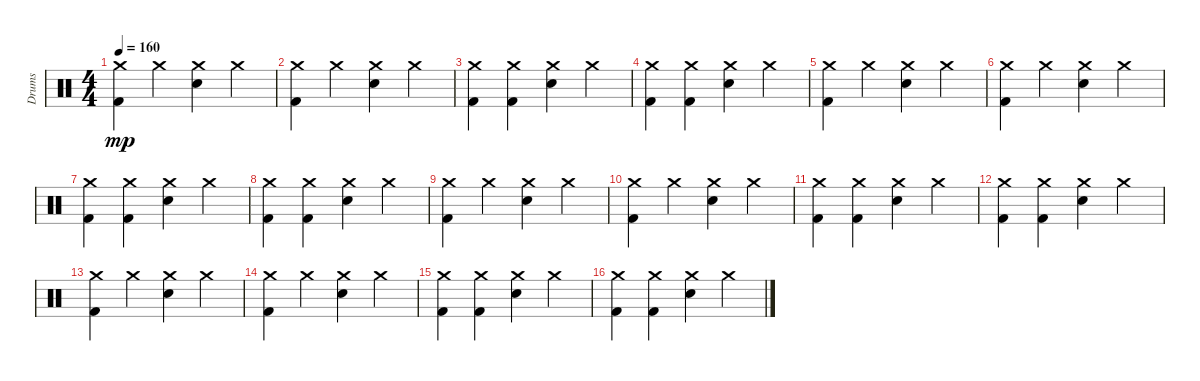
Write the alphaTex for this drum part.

\track ("Drums" "Drums") {instrument percussion}
\staff {score}
\articulation defaults
\ts (4 4)
\tempo 160
\clef neutral
\ks c
("Kick (hit) 2" "Crash medium (hit)").4{dy mp} "Crash medium (hit)".4 ("Snare (hit) 2" "Crash medium (hit)").4 "Crash medium (hit)".4 |
("Kick (hit) 2" "Crash medium (hit)").4 "Crash medium (hit)".4 ("Snare (hit) 2" "Crash medium (hit)").4 "Crash medium (hit)".4 |
("Kick (hit) 2" "Crash medium (hit)").4 ("Kick (hit) 2" "Crash medium (hit)").4 ("Snare (hit) 2" "Crash medium (hit)").4 "Crash medium (hit)".4 |
("Kick (hit) 2" "Crash medium (hit)").4 ("Kick (hit) 2" "Crash medium (hit)").4 ("Snare (hit) 2" "Crash medium (hit)").4 "Crash medium (hit)".4 |
("Kick (hit) 2" "Crash medium (hit)").4 "Crash medium (hit)".4 ("Snare (hit) 2" "Crash medium (hit)").4 "Crash medium (hit)".4 |
("Kick (hit) 2" "Crash medium (hit)").4 "Crash medium (hit)".4 ("Snare (hit) 2" "Crash medium (hit)").4 "Crash medium (hit)".4 |
("Kick (hit) 2" "Crash medium (hit)").4 ("Kick (hit) 2" "Crash medium (hit)").4 ("Snare (hit) 2" "Crash medium (hit)").4 "Crash medium (hit)".4 |
("Kick (hit) 2" "Crash medium (hit)").4 ("Kick (hit) 2" "Crash medium (hit)").4 ("Snare (hit) 2" "Crash medium (hit)").4 "Crash medium (hit)".4 |
("Kick (hit) 2" "Crash medium (hit)").4 "Crash medium (hit)".4 ("Snare (hit) 2" "Crash medium (hit)").4 "Crash medium (hit)".4 |
("Kick (hit) 2" "Crash medium (hit)").4 "Crash medium (hit)".4 ("Snare (hit) 2" "Crash medium (hit)").4 "Crash medium (hit)".4 |
("Kick (hit) 2" "Crash medium (hit)").4 ("Kick (hit) 2" "Crash medium (hit)").4 ("Snare (hit) 2" "Crash medium (hit)").4 "Crash medium (hit)".4 |
("Kick (hit) 2" "Crash medium (hit)").4 ("Kick (hit) 2" "Crash medium (hit)").4 ("Snare (hit) 2" "Crash medium (hit)").4 "Crash medium (hit)".4 |
("Kick (hit) 2" "Crash medium (hit)").4 "Crash medium (hit)".4 ("Snare (hit) 2" "Crash medium (hit)").4 "Crash medium (hit)".4 |
("Kick (hit) 2" "Crash medium (hit)").4 "Crash medium (hit)".4 ("Snare (hit) 2" "Crash medium (hit)").4 "Crash medium (hit)".4 |
("Kick (hit) 2" "Crash medium (hit)").4 ("Kick (hit) 2" "Crash medium (hit)").4 ("Snare (hit) 2" "Crash medium (hit)").4 "Crash medium (hit)".4 |
("Kick (hit) 2" "Crash medium (hit)").4 ("Kick (hit) 2" "Crash medium (hit)").4 ("Snare (hit) 2" "Crash medium (hit)").4 "Crash medium (hit)".4
